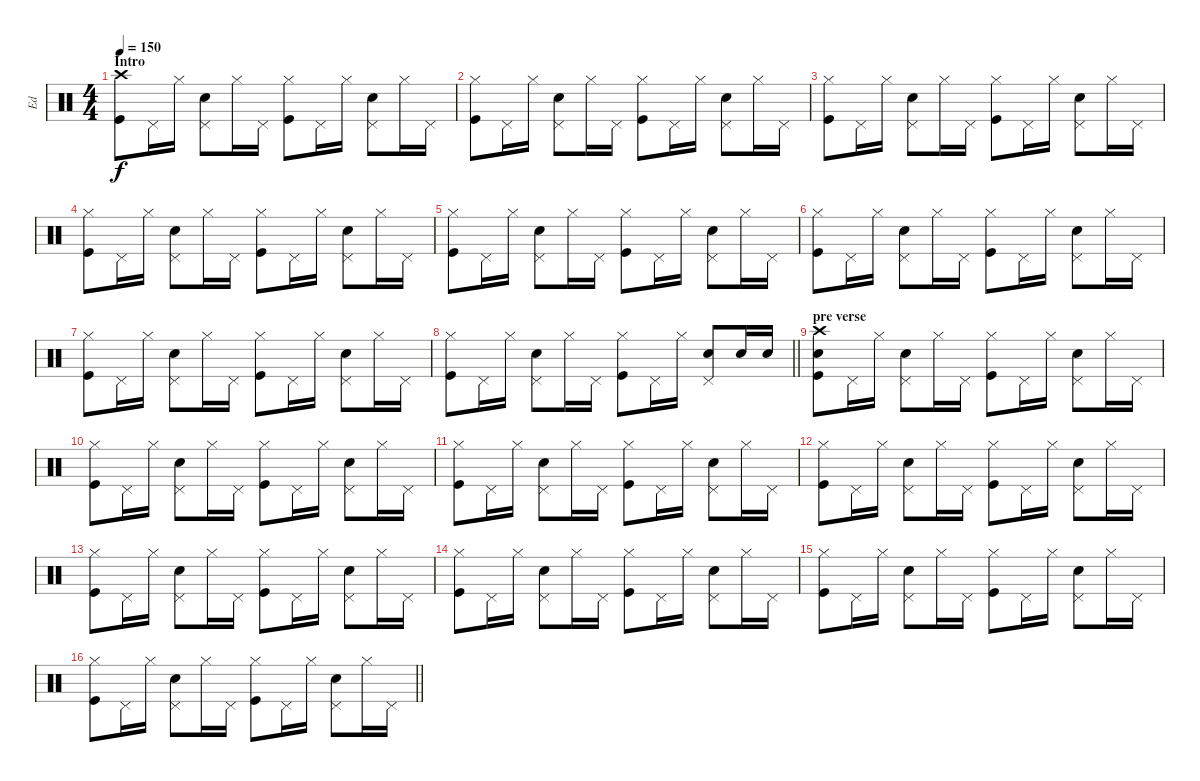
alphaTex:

\track ("Ed" "Ed") {instrument percussion}
\staff {score}
\articulation defaults
\ts (4 4)
\section ("" "Intro")
\tempo 150
\clef neutral
\ks c
("Crash high (hit)" "Kick (hit)").8{dy f} "Pedal Hi-Hat (hit)".16 "Hi-Hat (closed)".16 ("Pedal Hi-Hat (hit)" "Electric Snare (hit)").8 "Hi-Hat (closed)".16 "Pedal Hi-Hat (hit)".16 ("Hi-Hat (closed)" "Kick (hit)").8 "Pedal Hi-Hat (hit)".16 "Hi-Hat (closed)".16 ("Pedal Hi-Hat (hit)" "Electric Snare (hit)").8 "Hi-Hat (closed)".16 "Pedal Hi-Hat (hit)".16 |
("Hi-Hat (closed)" "Kick (hit)").8 "Pedal Hi-Hat (hit)".16 "Hi-Hat (closed)".16 ("Pedal Hi-Hat (hit)" "Electric Snare (hit)").8 "Hi-Hat (closed)".16 "Pedal Hi-Hat (hit)".16 ("Hi-Hat (closed)" "Kick (hit)").8 "Pedal Hi-Hat (hit)".16 "Hi-Hat (closed)".16 ("Pedal Hi-Hat (hit)" "Electric Snare (hit)").8 "Hi-Hat (closed)".16 "Pedal Hi-Hat (hit)".16 |
("Hi-Hat (closed)" "Kick (hit)").8 "Pedal Hi-Hat (hit)".16 "Hi-Hat (closed)".16 ("Pedal Hi-Hat (hit)" "Electric Snare (hit)").8 "Hi-Hat (closed)".16 "Pedal Hi-Hat (hit)".16 ("Hi-Hat (closed)" "Kick (hit)").8 "Pedal Hi-Hat (hit)".16 "Hi-Hat (closed)".16 ("Pedal Hi-Hat (hit)" "Electric Snare (hit)").8 "Hi-Hat (closed)".16 "Pedal Hi-Hat (hit)".16 |
("Hi-Hat (closed)" "Kick (hit)").8 "Pedal Hi-Hat (hit)".16 "Hi-Hat (closed)".16 ("Pedal Hi-Hat (hit)" "Electric Snare (hit)").8 "Hi-Hat (closed)".16 "Pedal Hi-Hat (hit)".16 ("Hi-Hat (closed)" "Kick (hit)").8 "Pedal Hi-Hat (hit)".16 "Hi-Hat (closed)".16 ("Pedal Hi-Hat (hit)" "Electric Snare (hit)").8 "Hi-Hat (closed)".16 "Pedal Hi-Hat (hit)".16 |
("Hi-Hat (closed)" "Kick (hit)").8 "Pedal Hi-Hat (hit)".16 "Hi-Hat (closed)".16 ("Pedal Hi-Hat (hit)" "Electric Snare (hit)").8 "Hi-Hat (closed)".16 "Pedal Hi-Hat (hit)".16 ("Hi-Hat (closed)" "Kick (hit)").8 "Pedal Hi-Hat (hit)".16 "Hi-Hat (closed)".16 ("Pedal Hi-Hat (hit)" "Electric Snare (hit)").8 "Hi-Hat (closed)".16 "Pedal Hi-Hat (hit)".16 |
("Hi-Hat (closed)" "Kick (hit)").8 "Pedal Hi-Hat (hit)".16 "Hi-Hat (closed)".16 ("Pedal Hi-Hat (hit)" "Electric Snare (hit)").8 "Hi-Hat (closed)".16 "Pedal Hi-Hat (hit)".16 ("Hi-Hat (closed)" "Kick (hit)").8 "Pedal Hi-Hat (hit)".16 "Hi-Hat (closed)".16 ("Pedal Hi-Hat (hit)" "Electric Snare (hit)").8 "Hi-Hat (closed)".16 "Pedal Hi-Hat (hit)".16 |
("Hi-Hat (closed)" "Kick (hit)").8 "Pedal Hi-Hat (hit)".16 "Hi-Hat (closed)".16 ("Pedal Hi-Hat (hit)" "Electric Snare (hit)").8 "Hi-Hat (closed)".16 "Pedal Hi-Hat (hit)".16 ("Hi-Hat (closed)" "Kick (hit)").8 "Pedal Hi-Hat (hit)".16 "Hi-Hat (closed)".16 ("Pedal Hi-Hat (hit)" "Electric Snare (hit)").8 "Hi-Hat (closed)".16 "Pedal Hi-Hat (hit)".16 |
\barLineRight lightlight
("Hi-Hat (closed)" "Kick (hit)").8 "Pedal Hi-Hat (hit)".16 "Hi-Hat (closed)".16 ("Pedal Hi-Hat (hit)" "Electric Snare (hit)").8 "Hi-Hat (closed)".16 "Pedal Hi-Hat (hit)".16 ("Hi-Hat (closed)" "Kick (hit)").8 "Pedal Hi-Hat (hit)".16 "Hi-Hat (closed)".16 ("Pedal Hi-Hat (hit)" "Electric Snare (hit)").8 "Electric Snare (hit)".16 "Electric Snare (hit)".16 |
\section ("" "pre verse")
("Crash high (hit)" "Electric Snare (hit)" "Kick (hit)").8 "Pedal Hi-Hat (hit)".16 "Hi-Hat (closed)".16 ("Pedal Hi-Hat (hit)" "Electric Snare (hit)").8 "Hi-Hat (closed)".16 "Pedal Hi-Hat (hit)".16 ("Hi-Hat (closed)" "Kick (hit)").8 "Pedal Hi-Hat (hit)".16 "Hi-Hat (closed)".16 ("Pedal Hi-Hat (hit)" "Electric Snare (hit)").8 "Hi-Hat (closed)".16 "Pedal Hi-Hat (hit)".16 |
("Hi-Hat (closed)" "Kick (hit)").8 "Pedal Hi-Hat (hit)".16 "Hi-Hat (closed)".16 ("Pedal Hi-Hat (hit)" "Electric Snare (hit)").8 "Hi-Hat (closed)".16 "Pedal Hi-Hat (hit)".16 ("Hi-Hat (closed)" "Kick (hit)").8 "Pedal Hi-Hat (hit)".16 "Hi-Hat (closed)".16 ("Pedal Hi-Hat (hit)" "Electric Snare (hit)").8 "Hi-Hat (closed)".16 "Pedal Hi-Hat (hit)".16 |
("Hi-Hat (closed)" "Kick (hit)").8 "Pedal Hi-Hat (hit)".16 "Hi-Hat (closed)".16 ("Pedal Hi-Hat (hit)" "Electric Snare (hit)").8 "Hi-Hat (closed)".16 "Pedal Hi-Hat (hit)".16 ("Hi-Hat (closed)" "Kick (hit)").8 "Pedal Hi-Hat (hit)".16 "Hi-Hat (closed)".16 ("Pedal Hi-Hat (hit)" "Electric Snare (hit)").8 "Hi-Hat (closed)".16 "Pedal Hi-Hat (hit)".16 |
("Hi-Hat (closed)" "Kick (hit)").8 "Pedal Hi-Hat (hit)".16 "Hi-Hat (closed)".16 ("Pedal Hi-Hat (hit)" "Electric Snare (hit)").8 "Hi-Hat (closed)".16 "Pedal Hi-Hat (hit)".16 ("Hi-Hat (closed)" "Kick (hit)").8 "Pedal Hi-Hat (hit)".16 "Hi-Hat (closed)".16 ("Pedal Hi-Hat (hit)" "Electric Snare (hit)").8 "Hi-Hat (closed)".16 "Pedal Hi-Hat (hit)".16 |
("Hi-Hat (closed)" "Kick (hit)").8 "Pedal Hi-Hat (hit)".16 "Hi-Hat (closed)".16 ("Pedal Hi-Hat (hit)" "Electric Snare (hit)").8 "Hi-Hat (closed)".16 "Pedal Hi-Hat (hit)".16 ("Hi-Hat (closed)" "Kick (hit)").8 "Pedal Hi-Hat (hit)".16 "Hi-Hat (closed)".16 ("Pedal Hi-Hat (hit)" "Electric Snare (hit)").8 "Hi-Hat (closed)".16 "Pedal Hi-Hat (hit)".16 |
("Hi-Hat (closed)" "Kick (hit)").8 "Pedal Hi-Hat (hit)".16 "Hi-Hat (closed)".16 ("Pedal Hi-Hat (hit)" "Electric Snare (hit)").8 "Hi-Hat (closed)".16 "Pedal Hi-Hat (hit)".16 ("Hi-Hat (closed)" "Kick (hit)").8 "Pedal Hi-Hat (hit)".16 "Hi-Hat (closed)".16 ("Pedal Hi-Hat (hit)" "Electric Snare (hit)").8 "Hi-Hat (closed)".16 "Pedal Hi-Hat (hit)".16 |
("Hi-Hat (closed)" "Kick (hit)").8 "Pedal Hi-Hat (hit)".16 "Hi-Hat (closed)".16 ("Pedal Hi-Hat (hit)" "Electric Snare (hit)").8 "Hi-Hat (closed)".16 "Pedal Hi-Hat (hit)".16 ("Hi-Hat (closed)" "Kick (hit)").8 "Pedal Hi-Hat (hit)".16 "Hi-Hat (closed)".16 ("Pedal Hi-Hat (hit)" "Electric Snare (hit)").8 "Hi-Hat (closed)".16 "Pedal Hi-Hat (hit)".16 |
\barLineRight lightlight
("Hi-Hat (closed)" "Kick (hit)").8 "Pedal Hi-Hat (hit)".16 "Hi-Hat (closed)".16 ("Pedal Hi-Hat (hit)" "Electric Snare (hit)").8 "Hi-Hat (closed)".16 "Pedal Hi-Hat (hit)".16 ("Hi-Hat (closed)" "Kick (hit)").8 "Pedal Hi-Hat (hit)".16 "Hi-Hat (closed)".16 ("Pedal Hi-Hat (hit)" "Electric Snare (hit)").8 "Hi-Hat (closed)".16 "Pedal Hi-Hat (hit)".16
